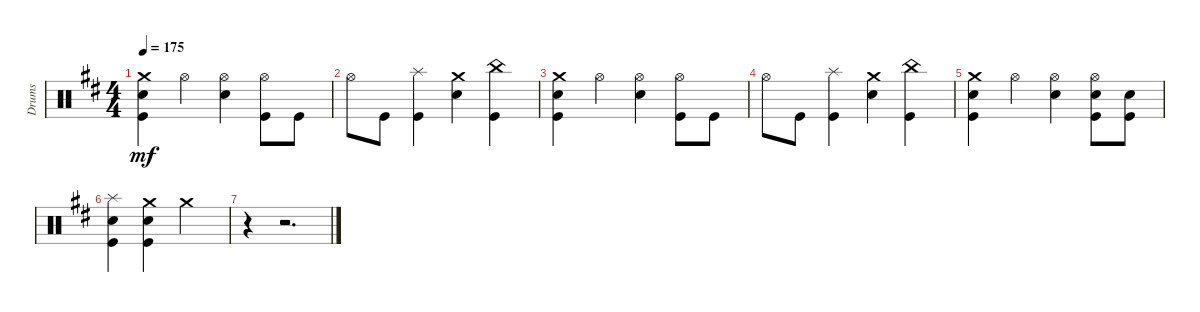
\track ("Drums" "Drums") {instrument percussion}
\staff {score}
\articulation defaults
\ts (4 4)
\tempo 175
\clef neutral
\ks d
("Kick (hit)" "Snare (hit) 2" "Crash medium (hit)").4{dy mf} "Hi-Hat (open)".4 ("Hi-Hat (open)" "Snare (hit) 2").4 ("Hi-Hat (open)" "Kick (hit)").8 "Kick (hit)".8 |
"Hi-Hat (open)".8 "Kick (hit)".8 ("Kick (hit)" "Splash (hit)").4 ("Crash medium (hit)" "Snare (hit) 2").4 ("China (hit)" "Kick (hit)").4 |
("Kick (hit)" "Snare (hit) 2" "Crash medium (hit)").4 "Hi-Hat (open)".4 ("Hi-Hat (open)" "Snare (hit) 2").4 ("Hi-Hat (open)" "Kick (hit)").8 "Kick (hit)".8 |
"Hi-Hat (open)".8 "Kick (hit)".8 ("Kick (hit)" "Splash (hit)").4 ("Crash medium (hit)" "Snare (hit) 2").4 ("China (hit)" "Kick (hit)").4 |
("Kick (hit)" "Snare (hit) 2" "Crash medium (hit)").4 "Hi-Hat (open)".4 ("Hi-Hat (open)" "Snare (hit) 2").4 ("Hi-Hat (open)" "Kick (hit)" "Snare (hit) 2").8 ("Kick (hit)" "Snare (hit) 2").8 |
("Kick (hit)" "Snare (hit) 2" "Splash (hit)").4 ("Kick (hit)" "Snare (hit) 2" "Crash medium (hit)").4 "Crash medium (hit)".2 |
r.4 r.2{d}
